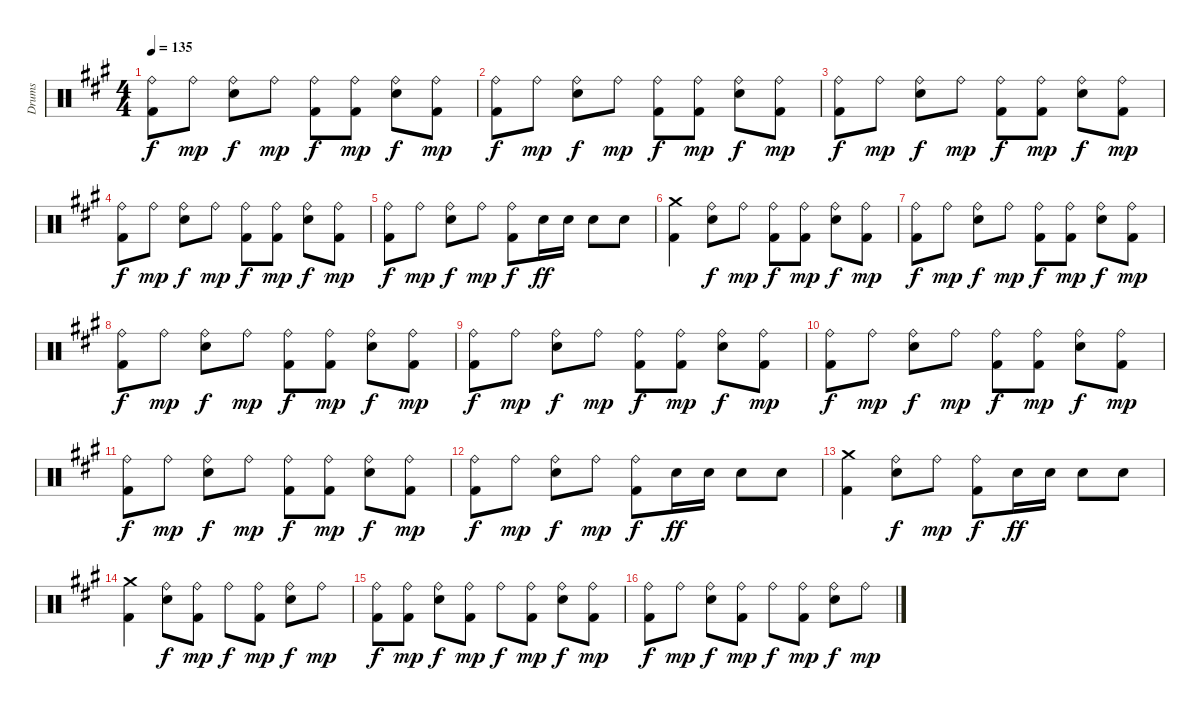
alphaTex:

\track ("Drums" "Drums") {instrument percussion}
\staff {score}
\articulation defaults
\ts (4 4)
\tempo 135
\clef neutral
\ks a
("Ride (bell)" "Kick (hit) 2").8{dy f} "Ride (bell)".8{dy mp} ("Ride (bell)" "Electric Snare (hit)").8{dy f} "Ride (bell)".8{dy mp} ("Ride (bell)" "Kick (hit) 2").8{dy f} ("Ride (bell)" "Kick (hit) 2").8{dy mp} ("Ride (bell)" "Electric Snare (hit)").8{dy f} ("Ride (bell)" "Kick (hit) 2").8{dy mp} |
("Ride (bell)" "Kick (hit) 2").8{dy f} "Ride (bell)".8{dy mp} ("Ride (bell)" "Electric Snare (hit)").8{dy f} "Ride (bell)".8{dy mp} ("Ride (bell)" "Kick (hit) 2").8{dy f} ("Ride (bell)" "Kick (hit) 2").8{dy mp} ("Ride (bell)" "Electric Snare (hit)").8{dy f} ("Ride (bell)" "Kick (hit) 2").8{dy mp} |
("Ride (bell)" "Kick (hit) 2").8{dy f} "Ride (bell)".8{dy mp} ("Ride (bell)" "Electric Snare (hit)").8{dy f} "Ride (bell)".8{dy mp} ("Ride (bell)" "Kick (hit) 2").8{dy f} ("Ride (bell)" "Kick (hit) 2").8{dy mp} ("Ride (bell)" "Electric Snare (hit)").8{dy f} ("Ride (bell)" "Kick (hit) 2").8{dy mp} |
("Ride (bell)" "Kick (hit) 2").8{dy f} "Ride (bell)".8{dy mp} ("Ride (bell)" "Electric Snare (hit)").8{dy f} "Ride (bell)".8{dy mp} ("Ride (bell)" "Kick (hit) 2").8{dy f} ("Ride (bell)" "Kick (hit) 2").8{dy mp} ("Ride (bell)" "Electric Snare (hit)").8{dy f} ("Ride (bell)" "Kick (hit) 2").8{dy mp} |
("Ride (bell)" "Kick (hit) 2").8{dy f} "Ride (bell)".8{dy mp} ("Ride (bell)" "Electric Snare (hit)").8{dy f} "Ride (bell)".8{dy mp} ("Ride (bell)" "Kick (hit) 2").8{dy f} "Electric Snare (hit)".16{dy ff} "Electric Snare (hit)".16 "Electric Snare (hit)".8 "Electric Snare (hit)".8 |
("Crash medium (hit)" "Kick (hit) 2").4 ("Ride (bell)" "Electric Snare (hit)").8{dy f} "Ride (bell)".8{dy mp} ("Ride (bell)" "Kick (hit) 2").8{dy f} ("Ride (bell)" "Kick (hit) 2").8{dy mp} ("Ride (bell)" "Electric Snare (hit)").8{dy f} ("Ride (bell)" "Kick (hit) 2").8{dy mp} |
("Ride (bell)" "Kick (hit) 2").8{dy f} "Ride (bell)".8{dy mp} ("Ride (bell)" "Electric Snare (hit)").8{dy f} "Ride (bell)".8{dy mp} ("Ride (bell)" "Kick (hit) 2").8{dy f} ("Ride (bell)" "Kick (hit) 2").8{dy mp} ("Ride (bell)" "Electric Snare (hit)").8{dy f} ("Ride (bell)" "Kick (hit) 2").8{dy mp} |
("Ride (bell)" "Kick (hit) 2").8{dy f} "Ride (bell)".8{dy mp} ("Ride (bell)" "Electric Snare (hit)").8{dy f} "Ride (bell)".8{dy mp} ("Ride (bell)" "Kick (hit) 2").8{dy f} ("Ride (bell)" "Kick (hit) 2").8{dy mp} ("Ride (bell)" "Electric Snare (hit)").8{dy f} ("Ride (bell)" "Kick (hit) 2").8{dy mp} |
("Ride (bell)" "Kick (hit) 2").8{dy f} "Ride (bell)".8{dy mp} ("Ride (bell)" "Electric Snare (hit)").8{dy f} "Ride (bell)".8{dy mp} ("Ride (bell)" "Kick (hit) 2").8{dy f} ("Ride (bell)" "Kick (hit) 2").8{dy mp} ("Ride (bell)" "Electric Snare (hit)").8{dy f} ("Ride (bell)" "Kick (hit) 2").8{dy mp} |
("Ride (bell)" "Kick (hit) 2").8{dy f} "Ride (bell)".8{dy mp} ("Ride (bell)" "Electric Snare (hit)").8{dy f} "Ride (bell)".8{dy mp} ("Ride (bell)" "Kick (hit) 2").8{dy f} ("Ride (bell)" "Kick (hit) 2").8{dy mp} ("Ride (bell)" "Electric Snare (hit)").8{dy f} ("Ride (bell)" "Kick (hit) 2").8{dy mp} |
("Ride (bell)" "Kick (hit) 2").8{dy f} "Ride (bell)".8{dy mp} ("Ride (bell)" "Electric Snare (hit)").8{dy f} "Ride (bell)".8{dy mp} ("Ride (bell)" "Kick (hit) 2").8{dy f} ("Ride (bell)" "Kick (hit) 2").8{dy mp} ("Ride (bell)" "Electric Snare (hit)").8{dy f} ("Ride (bell)" "Kick (hit) 2").8{dy mp} |
("Ride (bell)" "Kick (hit) 2").8{dy f} "Ride (bell)".8{dy mp} ("Ride (bell)" "Electric Snare (hit)").8{dy f} "Ride (bell)".8{dy mp} ("Ride (bell)" "Kick (hit) 2").8{dy f} "Electric Snare (hit)".16{dy ff} "Electric Snare (hit)".16 "Electric Snare (hit)".8 "Electric Snare (hit)".8 |
("Crash medium (hit)" "Kick (hit) 2").4 ("Ride (bell)" "Electric Snare (hit)").8{dy f} "Ride (bell)".8{dy mp} ("Ride (bell)" "Kick (hit) 2").8{dy f} "Electric Snare (hit)".16{dy ff} "Electric Snare (hit)".16 "Electric Snare (hit)".8 "Electric Snare (hit)".8 |
("Crash medium (hit)" "Kick (hit) 2").4 ("Ride (bell)" "Electric Snare (hit)").8{dy f} ("Ride (bell)" "Kick (hit) 2").8{dy mp} "Ride (bell)".8{dy f} ("Ride (bell)" "Kick (hit) 2").8{dy mp} ("Ride (bell)" "Electric Snare (hit)").8{dy f} "Ride (bell)".8{dy mp} |
("Ride (bell)" "Kick (hit) 2").8{dy f} ("Ride (bell)" "Kick (hit) 2").8{dy mp} ("Ride (bell)" "Electric Snare (hit)").8{dy f} ("Ride (bell)" "Kick (hit) 2").8{dy mp} "Ride (bell)".8{dy f} ("Ride (bell)" "Kick (hit) 2").8{dy mp} ("Ride (bell)" "Electric Snare (hit)").8{dy f} ("Ride (bell)" "Kick (hit) 2").8{dy mp} |
("Ride (bell)" "Kick (hit) 2").8{dy f} "Ride (bell)".8{dy mp} ("Ride (bell)" "Electric Snare (hit)").8{dy f} ("Ride (bell)" "Kick (hit) 2").8{dy mp} "Ride (bell)".8{dy f} ("Ride (bell)" "Kick (hit) 2").8{dy mp} ("Ride (bell)" "Electric Snare (hit)").8{dy f} "Ride (bell)".8{dy mp}
